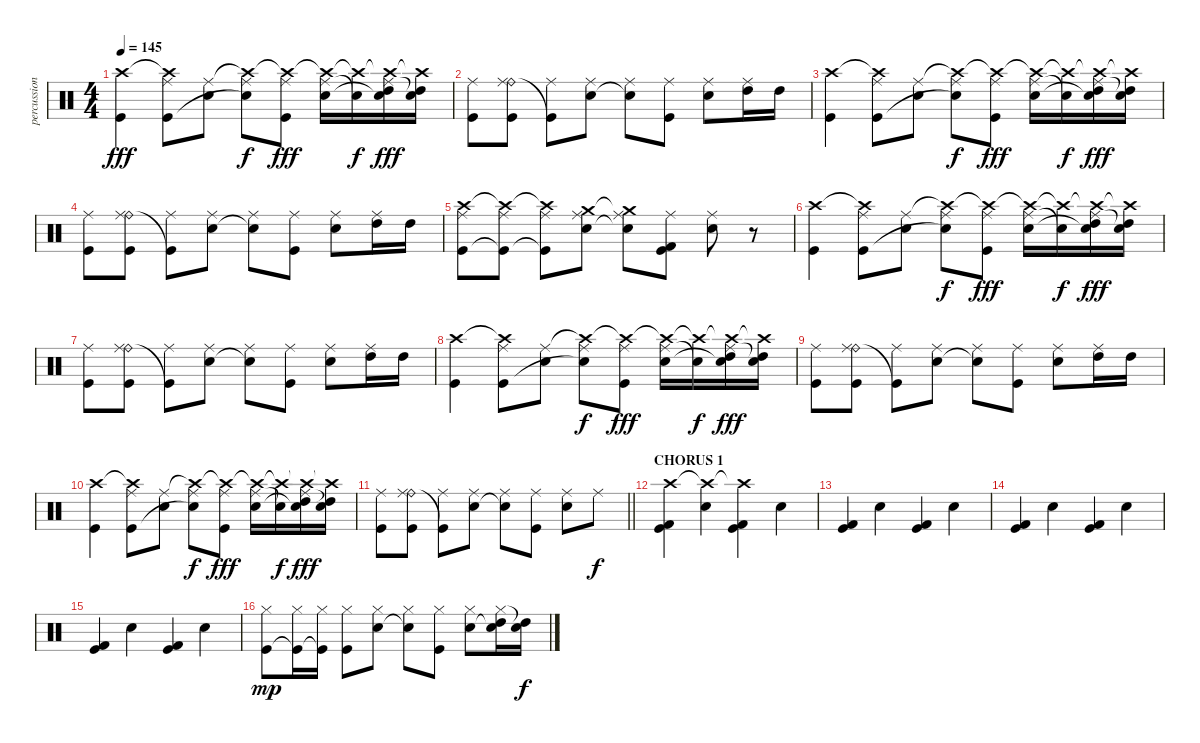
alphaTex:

\track ("percussion" "percussion") {instrument percussion}
\staff {score}
\articulation defaults
\ts (4 4)
\tempo 145
\clef neutral
\ks c
("Crash high (hit)" "Kick (hit)").4{dy fff} ("Crash high (hit)"{t} "Ride (middle)" "Kick (hit)").8 ("Ride (middle)" "Electric Snare (hit)").8 ("Crash high (hit)"{t} "Ride (middle)" "Electric Snare (hit)"{t}).8{dy f} ("Crash high (hit)"{t} "Ride (middle)" "Kick (hit)").8{dy fff} ("Crash high (hit)"{t} "Ride (middle)" "Electric Snare (hit)").16 ("Crash high (hit)"{t} "Electric Snare (hit)"{t}).16{dy f} ("Crash high (hit)"{t} "Ride (middle)" "Electric Snare (hit)"{t} "High Tom (hit)").16{dy fff} ("Crash high (hit)"{t} "Electric Snare (hit)"{t} "High Tom (hit)").16 |
("Ride (middle)" "Kick (hit)").8 ("Ride (bell)" "Ride (middle)" "Kick (hit)").8 ("Ride (middle)" "Kick (hit)"{t}).8 ("Ride (middle)" "Electric Snare (hit)").8 ("Ride (middle)" "Electric Snare (hit)"{t}).8 ("Ride (middle)" "Kick (hit)").8 ("Ride (middle)" "Electric Snare (hit)").8 ("Ride (middle)" "High Tom (hit)").16 "High Tom (hit)".16 |
("Crash high (hit)" "Kick (hit)").4 ("Crash high (hit)"{t} "Ride (middle)" "Kick (hit)").8 ("Ride (middle)" "Electric Snare (hit)").8 ("Crash high (hit)"{t} "Ride (middle)" "Electric Snare (hit)"{t}).8{dy f} ("Crash high (hit)"{t} "Ride (middle)" "Kick (hit)").8{dy fff} ("Crash high (hit)"{t} "Ride (middle)" "Electric Snare (hit)").16 ("Crash high (hit)"{t} "Electric Snare (hit)"{t}).16{dy f} ("Crash high (hit)"{t} "Ride (middle)" "Electric Snare (hit)"{t} "High Tom (hit)").16{dy fff} ("Crash high (hit)"{t} "Electric Snare (hit)"{t} "High Tom (hit)").16 |
("Ride (middle)" "Kick (hit)").8 ("Ride (bell)" "Ride (middle)" "Kick (hit)").8 ("Ride (middle)" "Kick (hit)"{t}).8 ("Ride (middle)" "Electric Snare (hit)").8 ("Ride (middle)" "Electric Snare (hit)"{t}).8 ("Ride (middle)" "Kick (hit)").8 ("Ride (middle)" "Electric Snare (hit)").8 ("Ride (middle)" "High Tom (hit)").16 "High Tom (hit)".16 |
("Crash high (hit)" "Ride (middle)" "Kick (hit)").8 ("Crash high (hit)"{t} "Ride (middle)" "Kick (hit)"{t}).8 ("Crash high (hit)"{t} "Ride (middle)" "Kick (hit)"{t}).8 ("Crash medium (hit)" "Ride (middle)" "Electric Snare (hit)").8 ("Crash medium (hit)"{t} "Ride (middle)" "Electric Snare (hit)"{t}).8 ("Ride (middle)" "Kick (hit)" "Kick (hit) 2").8 ("Ride (middle)" "Electric Snare (hit)").8 r.8 |
("Crash high (hit)" "Kick (hit)").4 ("Crash high (hit)"{t} "Ride (middle)" "Kick (hit)").8 ("Ride (middle)" "Electric Snare (hit)").8 ("Crash high (hit)"{t} "Ride (middle)" "Electric Snare (hit)"{t}).8{dy f} ("Crash high (hit)"{t} "Ride (middle)" "Kick (hit)").8{dy fff} ("Crash high (hit)"{t} "Ride (middle)" "Electric Snare (hit)").16 ("Crash high (hit)"{t} "Electric Snare (hit)"{t}).16{dy f} ("Crash high (hit)"{t} "Ride (middle)" "Electric Snare (hit)"{t} "High Tom (hit)").16{dy fff} ("Crash high (hit)"{t} "Electric Snare (hit)"{t} "High Tom (hit)").16 |
("Ride (middle)" "Kick (hit)").8 ("Ride (bell)" "Ride (middle)" "Kick (hit)").8 ("Ride (middle)" "Kick (hit)"{t}).8 ("Ride (middle)" "Electric Snare (hit)").8 ("Ride (middle)" "Electric Snare (hit)"{t}).8 ("Ride (middle)" "Kick (hit)").8 ("Ride (middle)" "Electric Snare (hit)").8 ("Ride (middle)" "High Tom (hit)").16 "High Tom (hit)".16 |
("Crash high (hit)" "Kick (hit)").4 ("Crash high (hit)"{t} "Ride (middle)" "Kick (hit)").8 ("Ride (middle)" "Electric Snare (hit)").8 ("Crash high (hit)"{t} "Ride (middle)" "Electric Snare (hit)"{t}).8{dy f} ("Crash high (hit)"{t} "Ride (middle)" "Kick (hit)").8{dy fff} ("Crash high (hit)"{t} "Ride (middle)" "Electric Snare (hit)").16 ("Crash high (hit)"{t} "Electric Snare (hit)"{t}).16{dy f} ("Crash high (hit)"{t} "Ride (middle)" "Electric Snare (hit)"{t} "High Tom (hit)").16{dy fff} ("Crash high (hit)"{t} "Electric Snare (hit)"{t} "High Tom (hit)").16 |
("Ride (middle)" "Kick (hit)").8 ("Ride (bell)" "Ride (middle)" "Kick (hit)").8 ("Ride (middle)" "Kick (hit)"{t}).8 ("Ride (middle)" "Electric Snare (hit)").8 ("Ride (middle)" "Electric Snare (hit)"{t}).8 ("Ride (middle)" "Kick (hit)").8 ("Ride (middle)" "Electric Snare (hit)").8 ("Ride (middle)" "High Tom (hit)").16 "High Tom (hit)".16 |
("Crash high (hit)" "Kick (hit)").4 ("Crash high (hit)"{t} "Ride (middle)" "Kick (hit)").8 ("Ride (middle)" "Electric Snare (hit)").8 ("Crash high (hit)"{t} "Ride (middle)" "Electric Snare (hit)"{t}).8{dy f} ("Crash high (hit)"{t} "Ride (middle)" "Kick (hit)").8{dy fff} ("Crash high (hit)"{t} "Ride (middle)" "Electric Snare (hit)").16 ("Crash high (hit)"{t} "Electric Snare (hit)"{t}).16{dy f} ("Crash high (hit)"{t} "Ride (middle)" "Electric Snare (hit)"{t} "High Tom (hit)").16{dy fff} ("Crash high (hit)"{t} "Electric Snare (hit)"{t} "High Tom (hit)").16 |
\barLineRight lightlight
("Ride (middle)" "Kick (hit)").8 ("Ride (bell)" "Ride (middle)" "Kick (hit)").8 ("Ride (middle)" "Kick (hit)"{t}).8 ("Ride (middle)" "Electric Snare (hit)").8 ("Ride (middle)" "Electric Snare (hit)"{t}).8 ("Ride (middle)" "Kick (hit)").8 ("Ride (middle)" "Electric Snare (hit)").8 "Ride (middle)".8{dy f} |
\section ("" "CHORUS 1")
("Crash high (hit)" "Kick (hit) 2" "Kick (hit)").4 ("Crash high (hit)"{t} "Electric Snare (hit)").4 ("Crash high (hit)"{t} "Kick (hit) 2" "Kick (hit)").4 "Electric Snare (hit)".4 |
("Kick (hit) 2" "Kick (hit)").4 "Electric Snare (hit)".4 ("Kick (hit) 2" "Kick (hit)").4 "Electric Snare (hit)".4 |
("Kick (hit) 2" "Kick (hit)").4 "Electric Snare (hit)".4 ("Kick (hit) 2" "Kick (hit)").4 "Electric Snare (hit)".4 |
("Kick (hit) 2" "Kick (hit)").4 "Electric Snare (hit)".4 ("Kick (hit) 2" "Kick (hit)").4 "Electric Snare (hit)".4 |
("Hi-Hat (closed)" "Kick (hit)").8{dy mp} ("Hi-Hat (closed)" "Kick (hit)"{t}).16 ("Hi-Hat (closed)" "Kick (hit)"{t}).16 ("Hi-Hat (closed)" "Kick (hit)").8 ("Hi-Hat (closed)" "Electric Snare (hit)").8 ("Hi-Hat (closed)" "Electric Snare (hit)"{t}).8 ("Hi-Hat (closed)" "Kick (hit)").8 ("Hi-Hat (closed)" "Electric Snare (hit)").8 ("Hi-Hat (closed)" "Electric Snare (hit)"{t} "High Tom (hit)").16 ("Electric Snare (hit)"{t} "High Tom (hit)").16{dy f}
